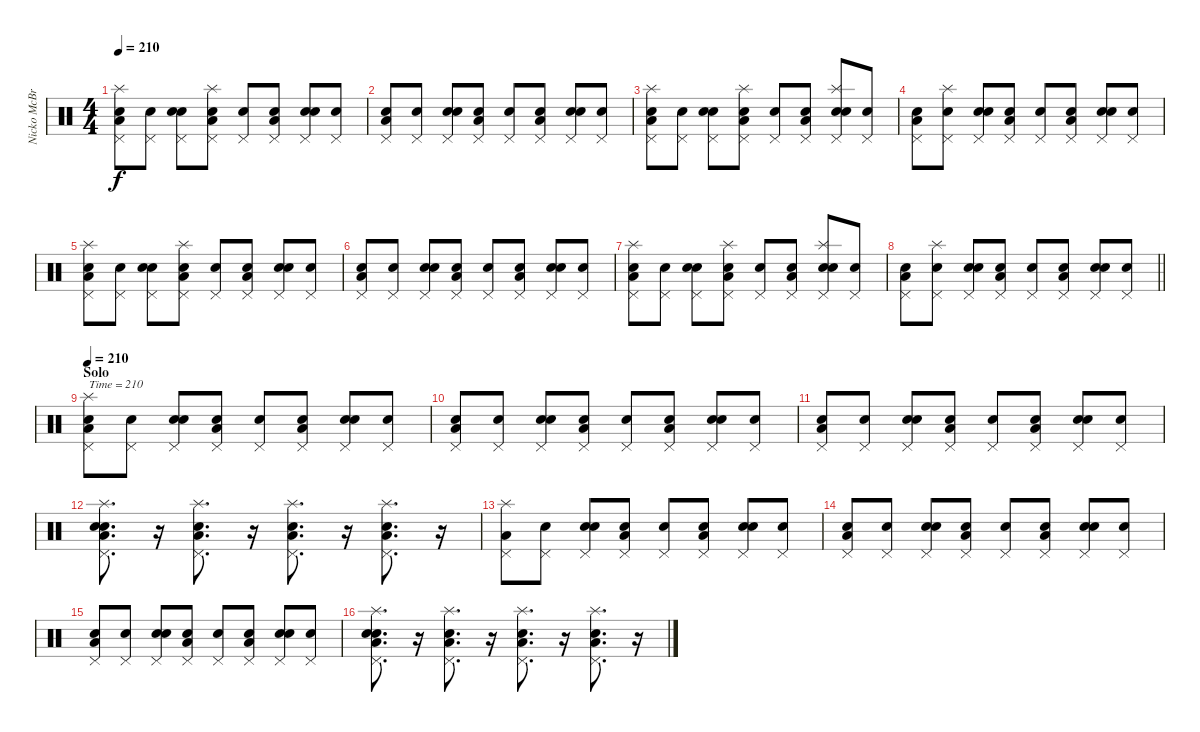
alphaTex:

\track ("Nicko McBrain" "Nicko McBr") {instrument percussion}
\staff {score}
\articulation defaults
\ts (4 4)
\tempo 210
\clef neutral
\ks c
("Snare (hit)" "Low Floor Tom (hit)" "Pedal Hi-Hat (hit)" "Splash (hit)").8{dy f} ("Snare (hit)" "Pedal Hi-Hat (hit)").8 ("Snare (hit)" "Electric Snare (hit)" "Pedal Hi-Hat (hit)").8 ("Snare (hit)" "Low Floor Tom (hit)" "Pedal Hi-Hat (hit)" "Splash (hit)").8 ("Snare (hit)" "Pedal Hi-Hat (hit)").8 ("Snare (hit)" "Low Floor Tom (hit)" "Pedal Hi-Hat (hit)").8 ("Snare (hit)" "Electric Snare (hit)" "Pedal Hi-Hat (hit)").8 ("Snare (hit)" "Pedal Hi-Hat (hit)").8 |
("Snare (hit)" "Low Floor Tom (hit)" "Pedal Hi-Hat (hit)").8 ("Snare (hit)" "Pedal Hi-Hat (hit)").8 ("Snare (hit)" "Electric Snare (hit)" "Pedal Hi-Hat (hit)").8 ("Snare (hit)" "Low Floor Tom (hit)" "Pedal Hi-Hat (hit)").8 ("Snare (hit)" "Pedal Hi-Hat (hit)").8 ("Snare (hit)" "Low Floor Tom (hit)" "Pedal Hi-Hat (hit)").8 ("Snare (hit)" "Electric Snare (hit)" "Pedal Hi-Hat (hit)").8 ("Snare (hit)" "Pedal Hi-Hat (hit)").8 |
("Snare (hit)" "Low Floor Tom (hit)" "Pedal Hi-Hat (hit)" "Splash (hit)").8 ("Snare (hit)" "Pedal Hi-Hat (hit)").8 ("Snare (hit)" "Electric Snare (hit)" "Pedal Hi-Hat (hit)").8 ("Snare (hit)" "Low Floor Tom (hit)" "Pedal Hi-Hat (hit)" "Splash (hit)").8 ("Snare (hit)" "Pedal Hi-Hat (hit)").8 ("Snare (hit)" "Low Floor Tom (hit)" "Pedal Hi-Hat (hit)").8 ("Snare (hit)" "Electric Snare (hit)" "Pedal Hi-Hat (hit)" "Splash (hit)").8 ("Snare (hit)" "Pedal Hi-Hat (hit)").8 |
("Snare (hit)" "Low Floor Tom (hit)" "Pedal Hi-Hat (hit)").8 ("Snare (hit)" "Pedal Hi-Hat (hit)" "Splash (hit)").8 ("Snare (hit)" "Electric Snare (hit)" "Pedal Hi-Hat (hit)").8 ("Snare (hit)" "Low Floor Tom (hit)" "Pedal Hi-Hat (hit)").8 ("Snare (hit)" "Pedal Hi-Hat (hit)").8 ("Snare (hit)" "Low Floor Tom (hit)" "Pedal Hi-Hat (hit)").8 ("Snare (hit)" "Electric Snare (hit)" "Pedal Hi-Hat (hit)").8 ("Snare (hit)" "Pedal Hi-Hat (hit)").8 |
("Snare (hit)" "Low Floor Tom (hit)" "Pedal Hi-Hat (hit)" "Splash (hit)").8 ("Snare (hit)" "Pedal Hi-Hat (hit)").8 ("Snare (hit)" "Electric Snare (hit)" "Pedal Hi-Hat (hit)").8 ("Snare (hit)" "Low Floor Tom (hit)" "Pedal Hi-Hat (hit)" "Splash (hit)").8 ("Snare (hit)" "Pedal Hi-Hat (hit)").8 ("Snare (hit)" "Low Floor Tom (hit)" "Pedal Hi-Hat (hit)").8 ("Snare (hit)" "Electric Snare (hit)" "Pedal Hi-Hat (hit)").8 ("Snare (hit)" "Pedal Hi-Hat (hit)").8 |
("Snare (hit)" "Low Floor Tom (hit)" "Pedal Hi-Hat (hit)").8 ("Snare (hit)" "Pedal Hi-Hat (hit)").8 ("Snare (hit)" "Electric Snare (hit)" "Pedal Hi-Hat (hit)").8 ("Snare (hit)" "Low Floor Tom (hit)" "Pedal Hi-Hat (hit)").8 ("Snare (hit)" "Pedal Hi-Hat (hit)").8 ("Snare (hit)" "Low Floor Tom (hit)" "Pedal Hi-Hat (hit)").8 ("Snare (hit)" "Electric Snare (hit)" "Pedal Hi-Hat (hit)").8 ("Snare (hit)" "Pedal Hi-Hat (hit)").8 |
("Snare (hit)" "Low Floor Tom (hit)" "Pedal Hi-Hat (hit)" "Splash (hit)").8 ("Snare (hit)" "Pedal Hi-Hat (hit)").8 ("Snare (hit)" "Electric Snare (hit)" "Pedal Hi-Hat (hit)").8 ("Snare (hit)" "Low Floor Tom (hit)" "Pedal Hi-Hat (hit)" "Splash (hit)").8 ("Snare (hit)" "Pedal Hi-Hat (hit)").8 ("Snare (hit)" "Low Floor Tom (hit)" "Pedal Hi-Hat (hit)").8 ("Snare (hit)" "Electric Snare (hit)" "Pedal Hi-Hat (hit)" "Splash (hit)").8 ("Snare (hit)" "Pedal Hi-Hat (hit)").8 |
\barLineRight lightlight
("Snare (hit)" "Low Floor Tom (hit)" "Pedal Hi-Hat (hit)").8 ("Snare (hit)" "Pedal Hi-Hat (hit)" "Splash (hit)").8 ("Snare (hit)" "Electric Snare (hit)" "Pedal Hi-Hat (hit)").8 ("Snare (hit)" "Low Floor Tom (hit)" "Pedal Hi-Hat (hit)").8 ("Snare (hit)" "Pedal Hi-Hat (hit)").8 ("Snare (hit)" "Low Floor Tom (hit)" "Pedal Hi-Hat (hit)").8 ("Snare (hit)" "Electric Snare (hit)" "Pedal Hi-Hat (hit)").8 ("Snare (hit)" "Pedal Hi-Hat (hit)").8 |
\section ("" "Solo")
\tempo 210
("Snare (hit)" "Low Floor Tom (hit)" "Pedal Hi-Hat (hit)" "Splash (hit)").8{txt "Time = 210"} ("Snare (hit)" "Pedal Hi-Hat (hit)").8 ("Snare (hit)" "Electric Snare (hit)" "Pedal Hi-Hat (hit)").8 ("Snare (hit)" "Low Floor Tom (hit)" "Pedal Hi-Hat (hit)").8 ("Snare (hit)" "Pedal Hi-Hat (hit)").8 ("Snare (hit)" "Low Floor Tom (hit)" "Pedal Hi-Hat (hit)").8 ("Snare (hit)" "Electric Snare (hit)" "Pedal Hi-Hat (hit)").8 ("Snare (hit)" "Pedal Hi-Hat (hit)").8 |
("Snare (hit)" "Low Floor Tom (hit)" "Pedal Hi-Hat (hit)").8 ("Snare (hit)" "Pedal Hi-Hat (hit)").8 ("Snare (hit)" "Electric Snare (hit)" "Pedal Hi-Hat (hit)").8 ("Snare (hit)" "Low Floor Tom (hit)" "Pedal Hi-Hat (hit)").8 ("Snare (hit)" "Pedal Hi-Hat (hit)").8 ("Snare (hit)" "Low Floor Tom (hit)" "Pedal Hi-Hat (hit)").8 ("Snare (hit)" "Electric Snare (hit)" "Pedal Hi-Hat (hit)").8 ("Snare (hit)" "Pedal Hi-Hat (hit)").8 |
("Snare (hit)" "Low Floor Tom (hit)" "Pedal Hi-Hat (hit)").8 ("Snare (hit)" "Pedal Hi-Hat (hit)").8 ("Snare (hit)" "Electric Snare (hit)" "Pedal Hi-Hat (hit)").8 ("Snare (hit)" "Low Floor Tom (hit)" "Pedal Hi-Hat (hit)").8 ("Snare (hit)" "Pedal Hi-Hat (hit)").8 ("Snare (hit)" "Low Floor Tom (hit)" "Pedal Hi-Hat (hit)").8 ("Snare (hit)" "Electric Snare (hit)" "Pedal Hi-Hat (hit)").8 ("Snare (hit)" "Pedal Hi-Hat (hit)").8 |
("Snare (hit)" "Electric Snare (hit)" "Low Floor Tom (hit)" "Pedal Hi-Hat (hit)" "Splash (hit)").8{d} r.16 ("Electric Snare (hit)" "Low Floor Tom (hit)" "Pedal Hi-Hat (hit)" "Splash (hit)").8{d} r.16 ("Electric Snare (hit)" "Low Floor Tom (hit)" "Pedal Hi-Hat (hit)" "Splash (hit)").8{d} r.16 ("Electric Snare (hit)" "Low Floor Tom (hit)" "Pedal Hi-Hat (hit)" "Splash (hit)").8{d} r.16 |
("Low Floor Tom (hit)" "Pedal Hi-Hat (hit)" "Splash (hit)").8 ("Snare (hit)" "Pedal Hi-Hat (hit)").8 ("Snare (hit)" "Electric Snare (hit)" "Pedal Hi-Hat (hit)").8 ("Snare (hit)" "Low Floor Tom (hit)" "Pedal Hi-Hat (hit)").8 ("Snare (hit)" "Pedal Hi-Hat (hit)").8 ("Snare (hit)" "Low Floor Tom (hit)" "Pedal Hi-Hat (hit)").8 ("Snare (hit)" "Electric Snare (hit)" "Pedal Hi-Hat (hit)").8 ("Snare (hit)" "Pedal Hi-Hat (hit)").8 |
("Snare (hit)" "Low Floor Tom (hit)" "Pedal Hi-Hat (hit)").8 ("Snare (hit)" "Pedal Hi-Hat (hit)").8 ("Snare (hit)" "Electric Snare (hit)" "Pedal Hi-Hat (hit)").8 ("Snare (hit)" "Low Floor Tom (hit)" "Pedal Hi-Hat (hit)").8 ("Snare (hit)" "Pedal Hi-Hat (hit)").8 ("Snare (hit)" "Low Floor Tom (hit)" "Pedal Hi-Hat (hit)").8 ("Snare (hit)" "Electric Snare (hit)" "Pedal Hi-Hat (hit)").8 ("Snare (hit)" "Pedal Hi-Hat (hit)").8 |
("Snare (hit)" "Low Floor Tom (hit)" "Pedal Hi-Hat (hit)").8 ("Snare (hit)" "Pedal Hi-Hat (hit)").8 ("Snare (hit)" "Electric Snare (hit)" "Pedal Hi-Hat (hit)").8 ("Snare (hit)" "Low Floor Tom (hit)" "Pedal Hi-Hat (hit)").8 ("Snare (hit)" "Pedal Hi-Hat (hit)").8 ("Snare (hit)" "Low Floor Tom (hit)" "Pedal Hi-Hat (hit)").8 ("Snare (hit)" "Electric Snare (hit)" "Pedal Hi-Hat (hit)").8 ("Snare (hit)" "Pedal Hi-Hat (hit)").8 |
("Snare (hit)" "Electric Snare (hit)" "Low Floor Tom (hit)" "Pedal Hi-Hat (hit)" "Splash (hit)").8{d} r.16 ("Electric Snare (hit)" "Low Floor Tom (hit)" "Pedal Hi-Hat (hit)" "Splash (hit)").8{d} r.16 ("Electric Snare (hit)" "Low Floor Tom (hit)" "Pedal Hi-Hat (hit)" "Splash (hit)").8{d} r.16 ("Electric Snare (hit)" "Low Floor Tom (hit)" "Pedal Hi-Hat (hit)" "Splash (hit)").8{d} r.16
